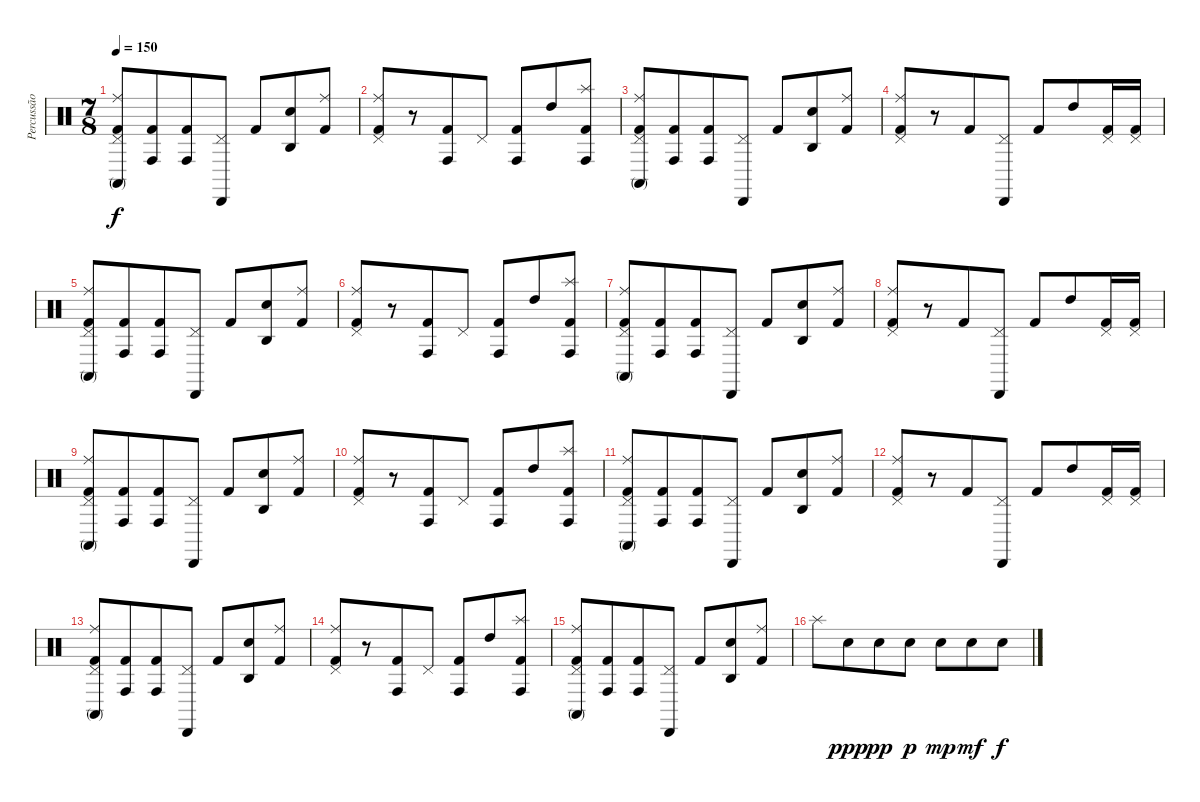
\track ("Percussão" "Percussão") {instrument percussion}
\staff {score}
\articulation defaults
\ts (7 8)
\tempo 150
\clef neutral
\ks c
("Kick (hit) 2" "Conga high (mute)" "Pedal Hi-Hat (hit)" "Ride (middle)").8{dy f} ("Kick (hit) 2" "Conga high (hit)").8 ("Kick (hit) 2" "Conga high (hit)").8 ("Cabasa (hit)" "Pedal Hi-Hat (hit)").8 "Kick (hit) 2".8 ("Agogo high (hit)" "Snare (hit) 2").8 ("Kick (hit) 2" "Ride (middle)").8 |
("Kick (hit) 2" "Pedal Hi-Hat (hit)" "Ride (middle)").8 r.8 ("Kick (hit) 2" "Conga high (hit)").8 "Pedal Hi-Hat (hit)".8 ("Kick (hit) 2" "Conga high (hit)").8 "High Tom (hit)".8 ("Kick (hit) 2" "Conga high (hit)" "Splash (hit)").8 |
("Kick (hit) 2" "Conga high (mute)" "Pedal Hi-Hat (hit)" "Ride (middle)").8 ("Kick (hit) 2" "Conga high (hit)").8 ("Kick (hit) 2" "Conga high (hit)").8 ("Cabasa (hit)" "Pedal Hi-Hat (hit)").8 "Kick (hit) 2".8 ("Agogo high (hit)" "Snare (hit) 2").8 ("Kick (hit) 2" "Ride (middle)").8 |
("Kick (hit) 2" "Pedal Hi-Hat (hit)" "Ride (middle)").8 r.8 "Kick (hit) 2".8 ("Cabasa (hit)" "Pedal Hi-Hat (hit)").8 "Kick (hit) 2".8 "High Tom (hit)".8 ("Kick (hit) 2" "Pedal Hi-Hat (hit)").16 ("Kick (hit) 2" "Pedal Hi-Hat (hit)").16 |
("Kick (hit) 2" "Conga high (mute)" "Pedal Hi-Hat (hit)" "Ride (middle)").8 ("Kick (hit) 2" "Conga high (hit)").8 ("Kick (hit) 2" "Conga high (hit)").8 ("Cabasa (hit)" "Pedal Hi-Hat (hit)").8 "Kick (hit) 2".8 ("Agogo high (hit)" "Snare (hit) 2").8 ("Kick (hit) 2" "Ride (middle)").8 |
("Kick (hit) 2" "Pedal Hi-Hat (hit)" "Ride (middle)").8 r.8 ("Kick (hit) 2" "Conga high (hit)").8 "Pedal Hi-Hat (hit)".8 ("Kick (hit) 2" "Conga high (hit)").8 "High Tom (hit)".8 ("Kick (hit) 2" "Conga high (hit)" "Splash (hit)").8 |
("Kick (hit) 2" "Conga high (mute)" "Pedal Hi-Hat (hit)" "Ride (middle)").8 ("Kick (hit) 2" "Conga high (hit)").8 ("Kick (hit) 2" "Conga high (hit)").8 ("Cabasa (hit)" "Pedal Hi-Hat (hit)").8 "Kick (hit) 2".8 ("Agogo high (hit)" "Snare (hit) 2").8 ("Kick (hit) 2" "Ride (middle)").8 |
("Kick (hit) 2" "Pedal Hi-Hat (hit)" "Ride (middle)").8 r.8 "Kick (hit) 2".8 ("Cabasa (hit)" "Pedal Hi-Hat (hit)").8 "Kick (hit) 2".8 "High Tom (hit)".8 ("Kick (hit) 2" "Pedal Hi-Hat (hit)").16 ("Kick (hit) 2" "Pedal Hi-Hat (hit)").16 |
("Kick (hit) 2" "Conga high (mute)" "Pedal Hi-Hat (hit)" "Ride (middle)").8 ("Kick (hit) 2" "Conga high (hit)").8 ("Kick (hit) 2" "Conga high (hit)").8 ("Cabasa (hit)" "Pedal Hi-Hat (hit)").8 "Kick (hit) 2".8 ("Agogo high (hit)" "Snare (hit) 2").8 ("Kick (hit) 2" "Ride (middle)").8 |
("Kick (hit) 2" "Pedal Hi-Hat (hit)" "Ride (middle)").8 r.8 ("Kick (hit) 2" "Conga high (hit)").8 "Pedal Hi-Hat (hit)".8 ("Kick (hit) 2" "Conga high (hit)").8 "High Tom (hit)".8 ("Kick (hit) 2" "Conga high (hit)" "Splash (hit)").8 |
("Kick (hit) 2" "Conga high (mute)" "Pedal Hi-Hat (hit)" "Ride (middle)").8 ("Kick (hit) 2" "Conga high (hit)").8 ("Kick (hit) 2" "Conga high (hit)").8 ("Cabasa (hit)" "Pedal Hi-Hat (hit)").8 "Kick (hit) 2".8 ("Agogo high (hit)" "Snare (hit) 2").8 ("Kick (hit) 2" "Ride (middle)").8 |
("Kick (hit) 2" "Pedal Hi-Hat (hit)" "Ride (middle)").8 r.8 "Kick (hit) 2".8 ("Cabasa (hit)" "Pedal Hi-Hat (hit)").8 "Kick (hit) 2".8 "High Tom (hit)".8 ("Kick (hit) 2" "Pedal Hi-Hat (hit)").16 ("Kick (hit) 2" "Pedal Hi-Hat (hit)").16 |
("Kick (hit) 2" "Conga high (mute)" "Pedal Hi-Hat (hit)" "Ride (middle)").8 ("Kick (hit) 2" "Conga high (hit)").8 ("Kick (hit) 2" "Conga high (hit)").8 ("Cabasa (hit)" "Pedal Hi-Hat (hit)").8 "Kick (hit) 2".8 ("Agogo high (hit)" "Snare (hit) 2").8 ("Kick (hit) 2" "Ride (middle)").8 |
("Kick (hit) 2" "Pedal Hi-Hat (hit)" "Ride (middle)").8 r.8 ("Kick (hit) 2" "Conga high (hit)").8 "Pedal Hi-Hat (hit)".8 ("Kick (hit) 2" "Conga high (hit)").8 "High Tom (hit)".8 ("Kick (hit) 2" "Conga high (hit)" "Splash (hit)").8 |
("Kick (hit) 2" "Conga high (mute)" "Pedal Hi-Hat (hit)" "Ride (middle)").8 ("Kick (hit) 2" "Conga high (hit)").8 ("Kick (hit) 2" "Conga high (hit)").8 ("Cabasa (hit)" "Pedal Hi-Hat (hit)").8 "Kick (hit) 2".8 ("Agogo high (hit)" "Snare (hit) 2").8 ("Kick (hit) 2" "Ride (middle)").8 |
"Splash (hit)".8 "Snare (hit) 2".8{dy ppp} "Snare (hit) 2".8{dy pp} "Snare (hit) 2".8{dy p} "Snare (hit) 2".8{dy mp} "Snare (hit) 2".8{dy mf} "Snare (hit) 2".8{dy f}
